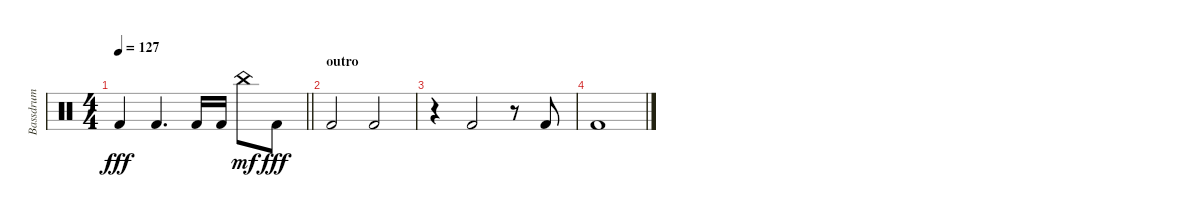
\track ("Bassdrum" "Bassdrum") {instrument percussion}
\staff {score}
\articulation defaults
\ts (4 4)
\tempo 127
\clef neutral
\barLineRight lightlight
\ks c "Kick (hit) 2".4{dy fff} "Kick (hit) 2".4{d} "Kick (hit) 2".16 "Kick (hit) 2".16 "China (hit)".8{dy mf} "Kick (hit) 2".8{dy fff}
|
\section ("" "outro")
"Kick (hit) 2".2 "Kick (hit) 2".2 |
r.4 "Kick (hit) 2".2 r.8 "Kick (hit) 2".8 |
"Kick (hit) 2".1
